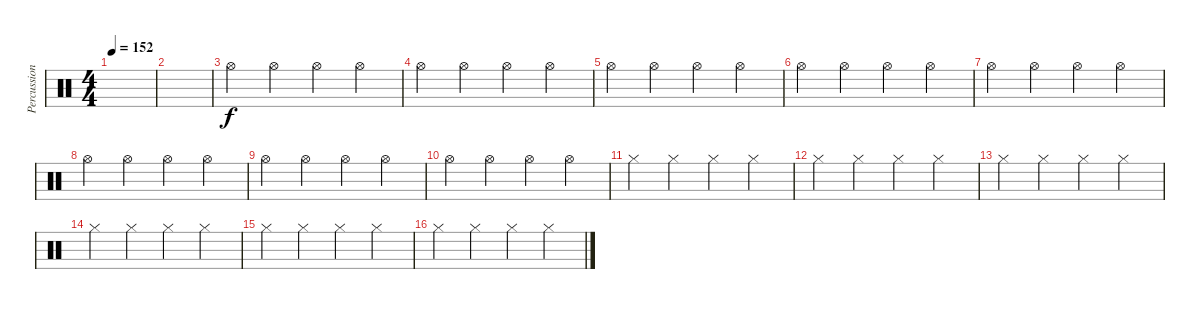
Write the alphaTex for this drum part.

\track ("Percussion" "Percussion") {instrument percussion}
\staff {score}
\articulation defaults
\ts (4 4)
\tempo 152
\clef neutral
\ks c
|
|
"Hi-Hat (open)".4 "Hi-Hat (open)".4 "Hi-Hat (open)".4 "Hi-Hat (open)".4 |
"Hi-Hat (open)".4 "Hi-Hat (open)".4 "Hi-Hat (open)".4 "Hi-Hat (open)".4 |
"Hi-Hat (open)".4 "Hi-Hat (open)".4 "Hi-Hat (open)".4 "Hi-Hat (open)".4 |
"Hi-Hat (open)".4 "Hi-Hat (open)".4 "Hi-Hat (open)".4 "Hi-Hat (open)".4 |
"Hi-Hat (open)".4 "Hi-Hat (open)".4 "Hi-Hat (open)".4 "Hi-Hat (open)".4 |
"Hi-Hat (open)".4 "Hi-Hat (open)".4 "Hi-Hat (open)".4 "Hi-Hat (open)".4 |
"Hi-Hat (open)".4 "Hi-Hat (open)".4 "Hi-Hat (open)".4 "Hi-Hat (open)".4 |
"Hi-Hat (open)".4 "Hi-Hat (open)".4 "Hi-Hat (open)".4 "Hi-Hat (open)".4 |
"Hi-Hat (closed)".4 "Hi-Hat (closed)".4 "Hi-Hat (closed)".4 "Hi-Hat (closed)".4 |
"Hi-Hat (closed)".4 "Hi-Hat (closed)".4 "Hi-Hat (closed)".4 "Hi-Hat (closed)".4 |
"Hi-Hat (closed)".4 "Hi-Hat (closed)".4 "Hi-Hat (closed)".4 "Hi-Hat (closed)".4 |
"Hi-Hat (closed)".4 "Hi-Hat (closed)".4 "Hi-Hat (closed)".4 "Hi-Hat (closed)".4 |
"Hi-Hat (closed)".4 "Hi-Hat (closed)".4 "Hi-Hat (closed)".4 "Hi-Hat (closed)".4 |
"Hi-Hat (closed)".4 "Hi-Hat (closed)".4 "Hi-Hat (closed)".4 "Hi-Hat (closed)".4
